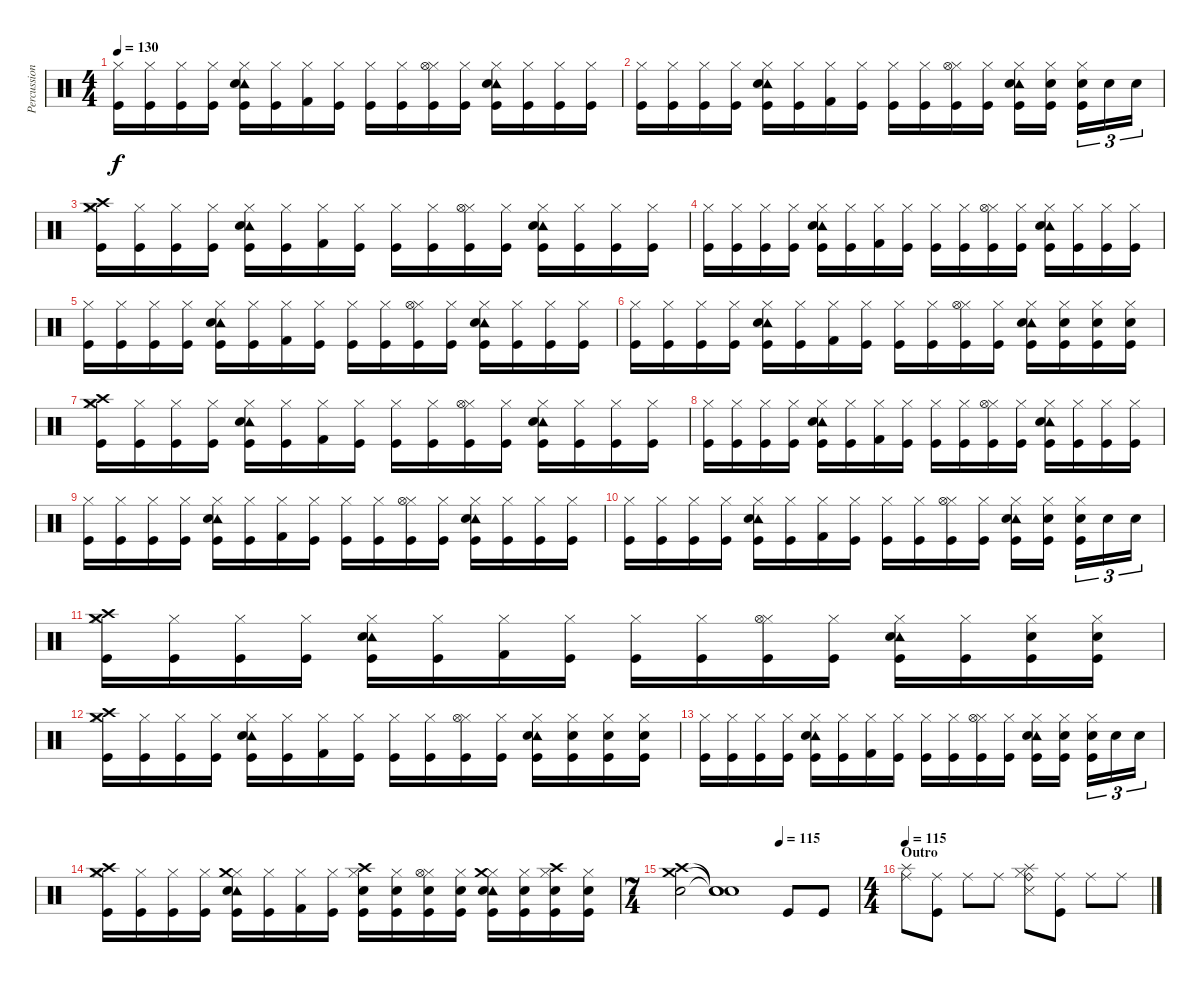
\track ("Percussion" "Percussion") {instrument percussion}
\staff {score}
\articulation defaults
\ts (4 4)
\tempo 130
\clef neutral
\ks c
("Hi-Hat (closed)" "Kick (hit)").16{dy f} ("Hi-Hat (closed)" "Kick (hit)").16 ("Hi-Hat (closed)" "Kick (hit)").16 ("Hi-Hat (closed)" "Kick (hit)").16 ("Hi-Hat (closed)" "Tambourine (hit)" "Electric Snare (hit)" "Kick (hit)").16 ("Hi-Hat (closed)" "Kick (hit)").16 ("Hi-Hat (closed)" "Kick (hit) 2").16 ("Hi-Hat (closed)" "Kick (hit)").16 ("Hi-Hat (closed)" "Kick (hit)").16 ("Hi-Hat (closed)" "Kick (hit)").16 ("Hi-Hat (closed)" "Hi-Hat (open)" "Kick (hit)").16 ("Hi-Hat (closed)" "Kick (hit)").16 ("Hi-Hat (closed)" "Tambourine (hit)" "Electric Snare (hit)" "Kick (hit)").16 ("Hi-Hat (closed)" "Kick (hit)").16 ("Hi-Hat (closed)" "Kick (hit)").16 ("Hi-Hat (closed)" "Kick (hit)").16 |
("Hi-Hat (closed)" "Kick (hit)").16 ("Hi-Hat (closed)" "Kick (hit)").16 ("Hi-Hat (closed)" "Kick (hit)").16 ("Hi-Hat (closed)" "Kick (hit)").16 ("Hi-Hat (closed)" "Tambourine (hit)" "Electric Snare (hit)" "Kick (hit)").16 ("Hi-Hat (closed)" "Kick (hit)").16 ("Hi-Hat (closed)" "Kick (hit) 2").16 ("Hi-Hat (closed)" "Kick (hit)").16 ("Hi-Hat (closed)" "Kick (hit)").16 ("Hi-Hat (closed)" "Kick (hit)").16 ("Hi-Hat (closed)" "Hi-Hat (open)" "Kick (hit)").16 ("Hi-Hat (closed)" "Kick (hit)").16 ("Hi-Hat (closed)" "Tambourine (hit)" "Electric Snare (hit)" "Kick (hit)").16 ("Hi-Hat (closed)" "Electric Snare (hit)" "Kick (hit)").16 ("Hi-Hat (closed)" "Electric Snare (hit)" "Kick (hit)").16{tu (3 2)} "Electric Snare (hit)".16{tu (3 2)} "Electric Snare (hit)".16{tu (3 2)} |
("Hi-Hat (closed)" "Crash high (hit)" "Crash medium (hit)" "Kick (hit)").16 ("Hi-Hat (closed)" "Kick (hit)").16 ("Hi-Hat (closed)" "Kick (hit)").16 ("Hi-Hat (closed)" "Kick (hit)").16 ("Hi-Hat (closed)" "Tambourine (hit)" "Electric Snare (hit)" "Kick (hit)").16 ("Hi-Hat (closed)" "Kick (hit)").16 ("Hi-Hat (closed)" "Kick (hit) 2").16 ("Hi-Hat (closed)" "Kick (hit)").16 ("Hi-Hat (closed)" "Kick (hit)").16 ("Hi-Hat (closed)" "Kick (hit)").16 ("Hi-Hat (closed)" "Hi-Hat (open)" "Kick (hit)").16 ("Hi-Hat (closed)" "Kick (hit)").16 ("Hi-Hat (closed)" "Tambourine (hit)" "Electric Snare (hit)" "Kick (hit)").16 ("Hi-Hat (closed)" "Kick (hit)").16 ("Hi-Hat (closed)" "Kick (hit)").16 ("Hi-Hat (closed)" "Kick (hit)").16 |
("Hi-Hat (closed)" "Kick (hit)").16 ("Hi-Hat (closed)" "Kick (hit)").16 ("Hi-Hat (closed)" "Kick (hit)").16 ("Hi-Hat (closed)" "Kick (hit)").16 ("Hi-Hat (closed)" "Tambourine (hit)" "Electric Snare (hit)" "Kick (hit)").16 ("Hi-Hat (closed)" "Kick (hit)").16 ("Hi-Hat (closed)" "Kick (hit) 2").16 ("Hi-Hat (closed)" "Kick (hit)").16 ("Hi-Hat (closed)" "Kick (hit)").16 ("Hi-Hat (closed)" "Kick (hit)").16 ("Hi-Hat (closed)" "Hi-Hat (open)" "Kick (hit)").16 ("Hi-Hat (closed)" "Kick (hit)").16 ("Hi-Hat (closed)" "Tambourine (hit)" "Electric Snare (hit)" "Kick (hit)").16 ("Hi-Hat (closed)" "Kick (hit)").16 ("Hi-Hat (closed)" "Kick (hit)").16 ("Hi-Hat (closed)" "Kick (hit)").16 |
("Hi-Hat (closed)" "Kick (hit)").16 ("Hi-Hat (closed)" "Kick (hit)").16 ("Hi-Hat (closed)" "Kick (hit)").16 ("Hi-Hat (closed)" "Kick (hit)").16 ("Hi-Hat (closed)" "Tambourine (hit)" "Electric Snare (hit)" "Kick (hit)").16 ("Hi-Hat (closed)" "Kick (hit)").16 ("Hi-Hat (closed)" "Kick (hit) 2").16 ("Hi-Hat (closed)" "Kick (hit)").16 ("Hi-Hat (closed)" "Kick (hit)").16 ("Hi-Hat (closed)" "Kick (hit)").16 ("Hi-Hat (closed)" "Hi-Hat (open)" "Kick (hit)").16 ("Hi-Hat (closed)" "Kick (hit)").16 ("Hi-Hat (closed)" "Tambourine (hit)" "Electric Snare (hit)" "Kick (hit)").16 ("Hi-Hat (closed)" "Kick (hit)").16 ("Hi-Hat (closed)" "Kick (hit)").16 ("Hi-Hat (closed)" "Kick (hit)").16 |
("Hi-Hat (closed)" "Kick (hit)").16 ("Hi-Hat (closed)" "Kick (hit)").16 ("Hi-Hat (closed)" "Kick (hit)").16 ("Hi-Hat (closed)" "Kick (hit)").16 ("Hi-Hat (closed)" "Tambourine (hit)" "Electric Snare (hit)" "Kick (hit)").16 ("Hi-Hat (closed)" "Kick (hit)").16 ("Hi-Hat (closed)" "Kick (hit) 2").16 ("Hi-Hat (closed)" "Kick (hit)").16 ("Hi-Hat (closed)" "Kick (hit)").16 ("Hi-Hat (closed)" "Kick (hit)").16 ("Hi-Hat (closed)" "Hi-Hat (open)" "Kick (hit)").16 ("Hi-Hat (closed)" "Kick (hit)").16 ("Hi-Hat (closed)" "Tambourine (hit)" "Electric Snare (hit)" "Kick (hit)").16 ("Hi-Hat (closed)" "Electric Snare (hit)" "Kick (hit)").16 ("Hi-Hat (closed)" "Electric Snare (hit)" "Kick (hit)").16 ("Hi-Hat (closed)" "Electric Snare (hit)" "Kick (hit)").16 |
("Hi-Hat (closed)" "Crash medium (hit)" "Crash high (hit)" "Kick (hit)").16 ("Hi-Hat (closed)" "Kick (hit)").16 ("Hi-Hat (closed)" "Kick (hit)").16 ("Hi-Hat (closed)" "Kick (hit)").16 ("Hi-Hat (closed)" "Tambourine (hit)" "Electric Snare (hit)" "Kick (hit)").16 ("Hi-Hat (closed)" "Kick (hit)").16 ("Hi-Hat (closed)" "Kick (hit) 2").16 ("Hi-Hat (closed)" "Kick (hit)").16 ("Hi-Hat (closed)" "Kick (hit)").16 ("Hi-Hat (closed)" "Kick (hit)").16 ("Hi-Hat (closed)" "Hi-Hat (open)" "Kick (hit)").16 ("Hi-Hat (closed)" "Kick (hit)").16 ("Hi-Hat (closed)" "Tambourine (hit)" "Electric Snare (hit)" "Kick (hit)").16 ("Hi-Hat (closed)" "Kick (hit)").16 ("Hi-Hat (closed)" "Kick (hit)").16 ("Hi-Hat (closed)" "Kick (hit)").16 |
("Hi-Hat (closed)" "Kick (hit)").16 ("Hi-Hat (closed)" "Kick (hit)").16 ("Hi-Hat (closed)" "Kick (hit)").16 ("Hi-Hat (closed)" "Kick (hit)").16 ("Hi-Hat (closed)" "Tambourine (hit)" "Electric Snare (hit)" "Kick (hit)").16 ("Hi-Hat (closed)" "Kick (hit)").16 ("Hi-Hat (closed)" "Kick (hit) 2").16 ("Hi-Hat (closed)" "Kick (hit)").16 ("Hi-Hat (closed)" "Kick (hit)").16 ("Hi-Hat (closed)" "Kick (hit)").16 ("Hi-Hat (closed)" "Hi-Hat (open)" "Kick (hit)").16 ("Hi-Hat (closed)" "Kick (hit)").16 ("Hi-Hat (closed)" "Tambourine (hit)" "Electric Snare (hit)" "Kick (hit)").16 ("Hi-Hat (closed)" "Kick (hit)").16 ("Hi-Hat (closed)" "Kick (hit)").16 ("Hi-Hat (closed)" "Kick (hit)").16 |
("Hi-Hat (closed)" "Kick (hit)").16 ("Hi-Hat (closed)" "Kick (hit)").16 ("Hi-Hat (closed)" "Kick (hit)").16 ("Hi-Hat (closed)" "Kick (hit)").16 ("Hi-Hat (closed)" "Tambourine (hit)" "Electric Snare (hit)" "Kick (hit)").16 ("Hi-Hat (closed)" "Kick (hit)").16 ("Hi-Hat (closed)" "Kick (hit) 2").16 ("Hi-Hat (closed)" "Kick (hit)").16 ("Hi-Hat (closed)" "Kick (hit)").16 ("Hi-Hat (closed)" "Kick (hit)").16 ("Hi-Hat (closed)" "Hi-Hat (open)" "Kick (hit)").16 ("Hi-Hat (closed)" "Kick (hit)").16 ("Hi-Hat (closed)" "Tambourine (hit)" "Electric Snare (hit)" "Kick (hit)").16 ("Hi-Hat (closed)" "Kick (hit)").16 ("Hi-Hat (closed)" "Kick (hit)").16 ("Hi-Hat (closed)" "Kick (hit)").16 |
("Hi-Hat (closed)" "Kick (hit)").16 ("Hi-Hat (closed)" "Kick (hit)").16 ("Hi-Hat (closed)" "Kick (hit)").16 ("Hi-Hat (closed)" "Kick (hit)").16 ("Hi-Hat (closed)" "Tambourine (hit)" "Electric Snare (hit)" "Kick (hit)").16 ("Hi-Hat (closed)" "Kick (hit)").16 ("Hi-Hat (closed)" "Kick (hit) 2").16 ("Hi-Hat (closed)" "Kick (hit)").16 ("Hi-Hat (closed)" "Kick (hit)").16 ("Hi-Hat (closed)" "Kick (hit)").16 ("Hi-Hat (closed)" "Hi-Hat (open)" "Kick (hit)").16 ("Hi-Hat (closed)" "Kick (hit)").16 ("Hi-Hat (closed)" "Tambourine (hit)" "Electric Snare (hit)" "Kick (hit)").16 ("Hi-Hat (closed)" "Electric Snare (hit)" "Kick (hit)").16 ("Hi-Hat (closed)" "Electric Snare (hit)" "Kick (hit)").16{tu (3 2)} "Electric Snare (hit)".16{tu (3 2)} "Electric Snare (hit)".16{tu (3 2)} |
("Hi-Hat (closed)" "Crash high (hit)" "Crash medium (hit)" "Kick (hit)").16 ("Hi-Hat (closed)" "Kick (hit)").16 ("Hi-Hat (closed)" "Kick (hit)").16 ("Hi-Hat (closed)" "Kick (hit)").16 ("Hi-Hat (closed)" "Tambourine (hit)" "Electric Snare (hit)" "Kick (hit)").16 ("Hi-Hat (closed)" "Kick (hit)").16 ("Hi-Hat (closed)" "Kick (hit) 2").16 ("Hi-Hat (closed)" "Kick (hit)").16 ("Hi-Hat (closed)" "Kick (hit)").16 ("Hi-Hat (closed)" "Kick (hit)").16 ("Hi-Hat (closed)" "Hi-Hat (open)" "Kick (hit)").16 ("Hi-Hat (closed)" "Kick (hit)").16 ("Hi-Hat (closed)" "Tambourine (hit)" "Electric Snare (hit)" "Kick (hit)").16 ("Hi-Hat (closed)" "Kick (hit)").16 ("Hi-Hat (closed)" "Electric Snare (hit)" "Kick (hit)").16 ("Hi-Hat (closed)" "Electric Snare (hit)" "Kick (hit)").16 |
("Hi-Hat (closed)" "Crash medium (hit)" "Crash high (hit)" "Kick (hit)").16 ("Hi-Hat (closed)" "Kick (hit)").16 ("Hi-Hat (closed)" "Kick (hit)").16 ("Hi-Hat (closed)" "Kick (hit)").16 ("Hi-Hat (closed)" "Tambourine (hit)" "Electric Snare (hit)" "Kick (hit)").16 ("Hi-Hat (closed)" "Kick (hit)").16 ("Hi-Hat (closed)" "Kick (hit) 2").16 ("Hi-Hat (closed)" "Kick (hit)").16 ("Hi-Hat (closed)" "Kick (hit)").16 ("Hi-Hat (closed)" "Kick (hit)").16 ("Hi-Hat (closed)" "Hi-Hat (open)" "Kick (hit)").16 ("Hi-Hat (closed)" "Kick (hit)").16 ("Hi-Hat (closed)" "Tambourine (hit)" "Electric Snare (hit)" "Kick (hit)").16 ("Hi-Hat (closed)" "Electric Snare (hit)" "Kick (hit)").16 ("Hi-Hat (closed)" "Electric Snare (hit)" "Kick (hit)").16 ("Hi-Hat (closed)" "Electric Snare (hit)" "Kick (hit)").16 |
("Hi-Hat (closed)" "Kick (hit)").16 ("Hi-Hat (closed)" "Kick (hit)").16 ("Hi-Hat (closed)" "Kick (hit)").16 ("Hi-Hat (closed)" "Kick (hit)").16 ("Hi-Hat (closed)" "Tambourine (hit)" "Electric Snare (hit)" "Kick (hit)").16 ("Hi-Hat (closed)" "Kick (hit)").16 ("Hi-Hat (closed)" "Kick (hit) 2").16 ("Hi-Hat (closed)" "Kick (hit)").16 ("Hi-Hat (closed)" "Kick (hit)").16 ("Hi-Hat (closed)" "Kick (hit)").16 ("Hi-Hat (closed)" "Hi-Hat (open)" "Kick (hit)").16 ("Hi-Hat (closed)" "Kick (hit)").16 ("Hi-Hat (closed)" "Tambourine (hit)" "Electric Snare (hit)" "Kick (hit)").16 ("Hi-Hat (closed)" "Electric Snare (hit)" "Kick (hit)").16 ("Hi-Hat (closed)" "Electric Snare (hit)" "Kick (hit)").16{tu (3 2)} "Electric Snare (hit)".16{tu (3 2)} "Electric Snare (hit)".16{tu (3 2)} |
("Hi-Hat (closed)" "Crash medium (hit)" "Crash high (hit)" "Kick (hit)").16 ("Hi-Hat (closed)" "Kick (hit)").16 ("Hi-Hat (closed)" "Kick (hit)").16 ("Hi-Hat (closed)" "Kick (hit)").16 ("Hi-Hat (closed)" "Tambourine (hit)" "Crash medium (hit)" "Electric Snare (hit)" "Kick (hit)").16 ("Hi-Hat (closed)" "Kick (hit)").16 ("Hi-Hat (closed)" "Kick (hit) 2").16 ("Hi-Hat (closed)" "Kick (hit)").16 ("Hi-Hat (closed)" "Crash high (hit)" "Electric Snare (hit)" "Kick (hit)").16 ("Hi-Hat (closed)" "Electric Snare (hit)" "Kick (hit)").16 ("Hi-Hat (closed)" "Hi-Hat (open)" "Electric Snare (hit)" "Kick (hit)").16 ("Hi-Hat (closed)" "Electric Snare (hit)" "Kick (hit)").16 ("Hi-Hat (closed)" "Tambourine (hit)" "Crash medium (hit)" "Electric Snare (hit)" "Kick (hit)").16 ("Hi-Hat (closed)" "Electric Snare (hit)" "Kick (hit)").16 ("Hi-Hat (closed)" "Crash high (hit)" "Electric Snare (hit)" "Kick (hit)").16 ("Hi-Hat (closed)" "Electric Snare (hit)" "Kick (hit)").16 |
\ts (7 4)
\tempo (115 0.5714285714285714)
("Crash medium (hit)" "Crash high (hit)" "Electric Snare (hit)").2 ("Snare (hit)"{t} "Snare (hit)"{t} "Snare (hit)"{t}).1 "Kick (hit)".8 "Kick (hit)".8 |
\ts (4 4)
\section ("" "Outro")
\tempo 115
("Ride (middle)" "Splash (hit)").8 ("Ride (middle)" "Kick (hit)").8 "Ride (middle)".8 "Ride (middle)".8 ("Hi-Hat (closed)" "Snare (side stick) 3" "Splash (hit)" "Ride (bell)").8 ("Ride (middle)" "Kick (hit)").8 "Ride (middle)".8 "Ride (middle)".8
